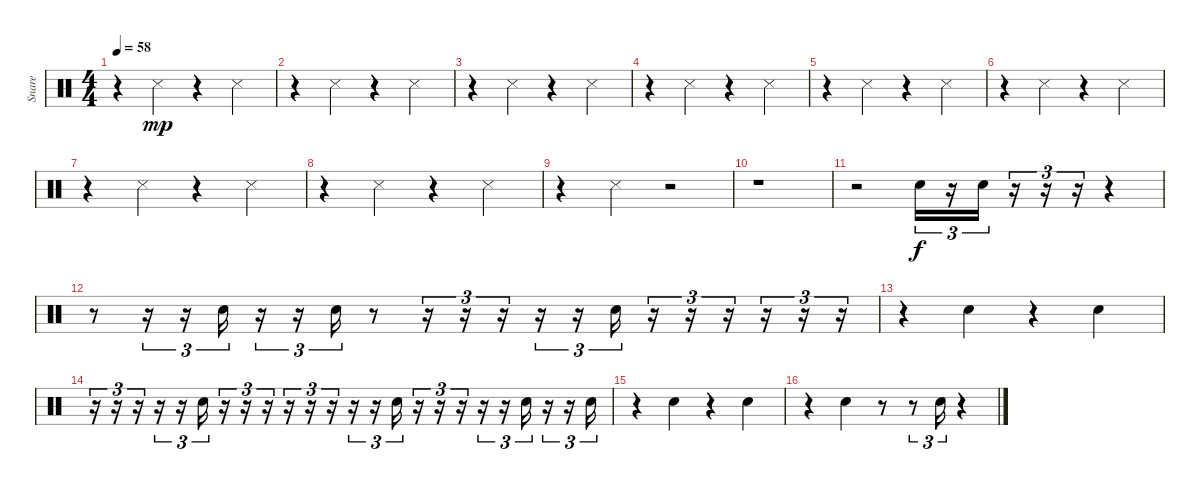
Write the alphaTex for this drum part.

\track ("Snare" "Snare") {instrument percussion}
\staff {score}
\articulation defaults
\ts (4 4)
\tempo 58
\clef neutral
\ks c
r.4{dy mp} "Snare (side stick) 3".4 r.4 "Snare (side stick) 3".4 |
r.4 "Snare (side stick) 3".4 r.4 "Snare (side stick) 3".4 |
r.4 "Snare (side stick) 3".4 r.4 "Snare (side stick) 3".4 |
r.4 "Snare (side stick) 3".4 r.4 "Snare (side stick) 3".4 |
r.4 "Snare (side stick) 3".4 r.4 "Snare (side stick) 3".4 |
r.4 "Snare (side stick) 3".4 r.4 "Snare (side stick) 3".4 |
r.4 "Snare (side stick) 3".4 r.4 "Snare (side stick) 3".4 |
r.4 "Snare (side stick) 3".4 r.4 "Snare (side stick) 3".4 |
r.4 "Snare (side stick) 3".4 r.2 |
r.1 |
r.2 "Snare (hit) 2".16{tu (3 2) dy f} r.16{tu (3 2)} "Snare (hit) 2".16{tu (3 2)} r.16{tu (3 2)} r.16{tu (3 2)} r.16{tu (3 2)} r.4 |
r.8 r.16{tu (3 2)} r.16{tu (3 2)} "Snare (hit) 2".16{tu (3 2)} r.16{tu (3 2)} r.16{tu (3 2)} "Snare (hit) 2".16{tu (3 2)} r.8 r.16{tu (3 2)} r.16{tu (3 2)} r.16{tu (3 2)} r.16{tu (3 2)} r.16{tu (3 2)} "Snare (hit) 2".16{tu (3 2)} r.16{tu (3 2)} r.16{tu (3 2)} r.16{tu (3 2)} r.16{tu (3 2)} r.16{tu (3 2)} r.16{tu (3 2)} |
r.4 "Snare (hit) 2".4 r.4 "Snare (hit) 2".4 |
r.16{tu (3 2)} r.16{tu (3 2)} r.16{tu (3 2)} r.16{tu (3 2)} r.16{tu (3 2)} "Snare (hit) 2".16{tu (3 2)} r.16{tu (3 2)} r.16{tu (3 2)} r.16{tu (3 2)} r.16{tu (3 2)} r.16{tu (3 2)} r.16{tu (3 2)} r.16{tu (3 2)} r.16{tu (3 2)} "Snare (hit) 2".16{tu (3 2)} r.16{tu (3 2)} r.16{tu (3 2)} r.16{tu (3 2)} r.16{tu (3 2)} r.16{tu (3 2)} "Snare (hit) 2".16{tu (3 2)} r.16{tu (3 2)} r.16{tu (3 2)} "Snare (hit) 2".16{tu (3 2)} |
r.4 "Snare (hit) 2".4 r.4 "Snare (hit) 2".4 |
r.4 "Snare (hit) 2".4 r.8 r.8{tu (3 2)} "Snare (hit) 2".16{tu (3 2)} r.4
